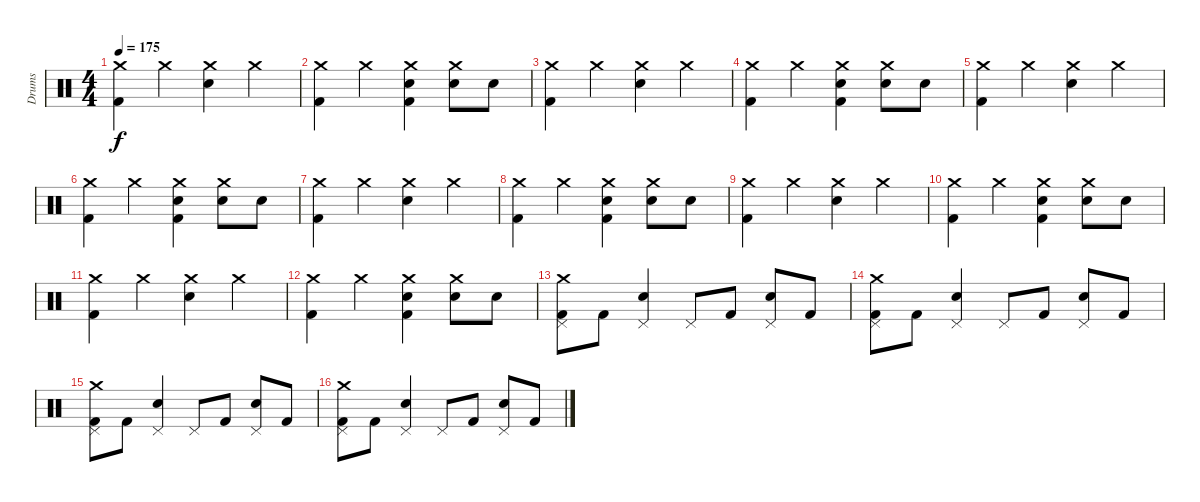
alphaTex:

\track ("Drums" "Drums") {instrument percussion}
\staff {score}
\articulation defaults
\ts (4 4)
\tempo 175
\clef neutral
\ks c
("Crash medium (hit)" "Kick (hit) 2").4{dy f} "Crash medium (hit)".4 ("Crash medium (hit)" "Snare (hit) 2").4 "Crash medium (hit)".4 |
("Crash medium (hit)" "Kick (hit) 2").4 "Crash medium (hit)".4 ("Crash medium (hit)" "Snare (hit) 2" "Kick (hit) 2").4 ("Crash medium (hit)" "Snare (hit) 2").8 "Snare (hit) 2".8 |
("Crash medium (hit)" "Kick (hit) 2").4 "Crash medium (hit)".4 ("Crash medium (hit)" "Snare (hit) 2").4 "Crash medium (hit)".4 |
("Crash medium (hit)" "Kick (hit) 2").4 "Crash medium (hit)".4 ("Crash medium (hit)" "Snare (hit) 2" "Kick (hit) 2").4 ("Crash medium (hit)" "Snare (hit) 2").8 "Snare (hit) 2".8 |
("Crash medium (hit)" "Kick (hit) 2").4 "Crash medium (hit)".4 ("Crash medium (hit)" "Snare (hit) 2").4 "Crash medium (hit)".4 |
("Crash medium (hit)" "Kick (hit) 2").4 "Crash medium (hit)".4 ("Crash medium (hit)" "Snare (hit) 2" "Kick (hit) 2").4 ("Crash medium (hit)" "Snare (hit) 2").8 "Snare (hit) 2".8 |
("Crash medium (hit)" "Kick (hit) 2").4 "Crash medium (hit)".4 ("Crash medium (hit)" "Snare (hit) 2").4 "Crash medium (hit)".4 |
("Crash medium (hit)" "Kick (hit) 2").4 "Crash medium (hit)".4 ("Crash medium (hit)" "Snare (hit) 2" "Kick (hit) 2").4 ("Crash medium (hit)" "Snare (hit) 2").8 "Snare (hit) 2".8 |
("Crash medium (hit)" "Kick (hit) 2").4 "Crash medium (hit)".4 ("Crash medium (hit)" "Snare (hit) 2").4 "Crash medium (hit)".4 |
("Crash medium (hit)" "Kick (hit) 2").4 "Crash medium (hit)".4 ("Crash medium (hit)" "Snare (hit) 2" "Kick (hit) 2").4 ("Crash medium (hit)" "Snare (hit) 2").8 "Snare (hit) 2".8 |
("Crash medium (hit)" "Kick (hit) 2").4 "Crash medium (hit)".4 ("Crash medium (hit)" "Snare (hit) 2").4 "Crash medium (hit)".4 |
("Crash medium (hit)" "Kick (hit) 2").4 "Crash medium (hit)".4 ("Crash medium (hit)" "Snare (hit) 2" "Kick (hit) 2").4 ("Crash medium (hit)" "Snare (hit) 2").8 "Snare (hit) 2".8 |
("Crash medium (hit)" "Pedal Hi-Hat (hit)" "Kick (hit) 2").8 "Kick (hit) 2".8 ("Pedal Hi-Hat (hit)" "Snare (hit) 2").4 "Pedal Hi-Hat (hit)".8 "Kick (hit) 2".8 ("Pedal Hi-Hat (hit)" "Snare (hit) 2").8 "Kick (hit) 2".8 |
("Crash medium (hit)" "Pedal Hi-Hat (hit)" "Kick (hit) 2").8 "Kick (hit) 2".8 ("Pedal Hi-Hat (hit)" "Snare (hit) 2").4 "Pedal Hi-Hat (hit)".8 "Kick (hit) 2".8 ("Pedal Hi-Hat (hit)" "Snare (hit) 2").8 "Kick (hit) 2".8 |
("Crash medium (hit)" "Pedal Hi-Hat (hit)" "Kick (hit) 2").8 "Kick (hit) 2".8 ("Pedal Hi-Hat (hit)" "Snare (hit) 2").4 "Pedal Hi-Hat (hit)".8 "Kick (hit) 2".8 ("Pedal Hi-Hat (hit)" "Snare (hit) 2").8 "Kick (hit) 2".8 |
("Crash medium (hit)" "Pedal Hi-Hat (hit)" "Kick (hit) 2").8 "Kick (hit) 2".8 ("Pedal Hi-Hat (hit)" "Snare (hit) 2").4 "Pedal Hi-Hat (hit)".8 "Kick (hit) 2".8 ("Pedal Hi-Hat (hit)" "Snare (hit) 2").8 "Kick (hit) 2".8
